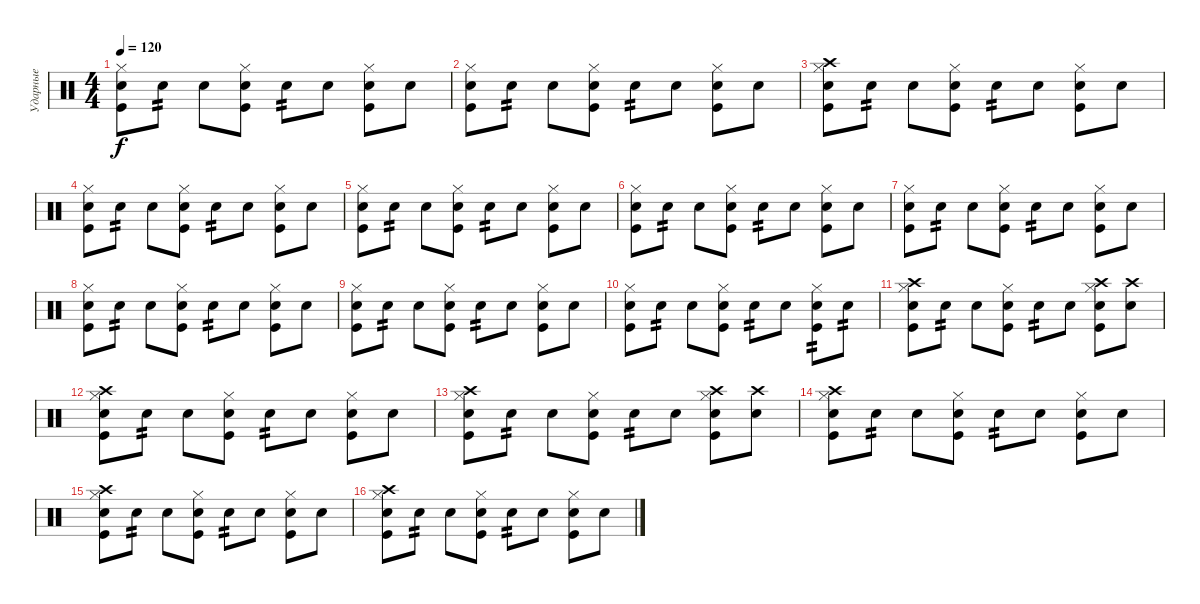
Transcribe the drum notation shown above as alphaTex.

\track ("Ударные" "Ударные") {instrument percussion}
\staff {score}
\articulation defaults
\ts (4 4)
\tempo 120
\clef neutral
\ks c
("Hi-Hat (closed)" "Electric Snare (hit)" "Kick (hit)").8{dy f} "Electric Snare (hit)".8{tp 2} "Electric Snare (hit)".8 ("Hi-Hat (closed)" "Electric Snare (hit)" "Kick (hit)").8 "Electric Snare (hit)".8{tp 2} "Electric Snare (hit)".8 ("Hi-Hat (closed)" "Electric Snare (hit)" "Kick (hit)").8 "Electric Snare (hit)".8 |
("Hi-Hat (closed)" "Electric Snare (hit)" "Kick (hit)").8 "Electric Snare (hit)".8{tp 2} "Electric Snare (hit)".8 ("Hi-Hat (closed)" "Electric Snare (hit)" "Kick (hit)").8 "Electric Snare (hit)".8{tp 2} "Electric Snare (hit)".8 ("Hi-Hat (closed)" "Electric Snare (hit)" "Kick (hit)").8 "Electric Snare (hit)".8 |
("Hi-Hat (closed)" "Crash high (hit)" "Electric Snare (hit)" "Kick (hit)").8 "Electric Snare (hit)".8{tp 2} "Electric Snare (hit)".8 ("Hi-Hat (closed)" "Electric Snare (hit)" "Kick (hit)").8 "Electric Snare (hit)".8{tp 2} "Electric Snare (hit)".8 ("Hi-Hat (closed)" "Electric Snare (hit)" "Kick (hit)").8 "Electric Snare (hit)".8 |
("Hi-Hat (closed)" "Electric Snare (hit)" "Kick (hit)").8 "Electric Snare (hit)".8{tp 2} "Electric Snare (hit)".8 ("Hi-Hat (closed)" "Electric Snare (hit)" "Kick (hit)").8 "Electric Snare (hit)".8{tp 2} "Electric Snare (hit)".8 ("Hi-Hat (closed)" "Electric Snare (hit)" "Kick (hit)").8 "Electric Snare (hit)".8 |
("Hi-Hat (closed)" "Electric Snare (hit)" "Kick (hit)").8 "Electric Snare (hit)".8{tp 2} "Electric Snare (hit)".8 ("Hi-Hat (closed)" "Electric Snare (hit)" "Kick (hit)").8 "Electric Snare (hit)".8{tp 2} "Electric Snare (hit)".8 ("Hi-Hat (closed)" "Electric Snare (hit)" "Kick (hit)").8 "Electric Snare (hit)".8 |
("Hi-Hat (closed)" "Electric Snare (hit)" "Kick (hit)").8 "Electric Snare (hit)".8{tp 2} "Electric Snare (hit)".8 ("Hi-Hat (closed)" "Electric Snare (hit)" "Kick (hit)").8 "Electric Snare (hit)".8{tp 2} "Electric Snare (hit)".8 ("Hi-Hat (closed)" "Electric Snare (hit)" "Kick (hit)").8 "Electric Snare (hit)".8 |
("Hi-Hat (closed)" "Electric Snare (hit)" "Kick (hit)").8 "Electric Snare (hit)".8{tp 2} "Electric Snare (hit)".8 ("Hi-Hat (closed)" "Electric Snare (hit)" "Kick (hit)").8 "Electric Snare (hit)".8{tp 2} "Electric Snare (hit)".8 ("Hi-Hat (closed)" "Electric Snare (hit)" "Kick (hit)").8 "Electric Snare (hit)".8 |
("Hi-Hat (closed)" "Electric Snare (hit)" "Kick (hit)").8 "Electric Snare (hit)".8{tp 2} "Electric Snare (hit)".8 ("Hi-Hat (closed)" "Electric Snare (hit)" "Kick (hit)").8 "Electric Snare (hit)".8{tp 2} "Electric Snare (hit)".8 ("Hi-Hat (closed)" "Electric Snare (hit)" "Kick (hit)").8 "Electric Snare (hit)".8 |
("Hi-Hat (closed)" "Electric Snare (hit)" "Kick (hit)").8 "Electric Snare (hit)".8{tp 2} "Electric Snare (hit)".8 ("Hi-Hat (closed)" "Electric Snare (hit)" "Kick (hit)").8 "Electric Snare (hit)".8{tp 2} "Electric Snare (hit)".8 ("Hi-Hat (closed)" "Electric Snare (hit)" "Kick (hit)").8 "Electric Snare (hit)".8 |
("Hi-Hat (closed)" "Electric Snare (hit)" "Kick (hit)").8 "Electric Snare (hit)".8{tp 2} "Electric Snare (hit)".8 ("Hi-Hat (closed)" "Electric Snare (hit)" "Kick (hit)").8 "Electric Snare (hit)".8{tp 2} "Electric Snare (hit)".8 ("Hi-Hat (closed)" "Electric Snare (hit)" "Kick (hit)").8{tp 2} "Electric Snare (hit)".8{tp 2} |
("Hi-Hat (closed)" "Crash high (hit)" "Electric Snare (hit)" "Kick (hit)").8 "Electric Snare (hit)".8{tp 2} "Electric Snare (hit)".8 ("Hi-Hat (closed)" "Electric Snare (hit)" "Kick (hit)").8 "Electric Snare (hit)".8{tp 2} "Electric Snare (hit)".8 ("Hi-Hat (closed)" "Crash high (hit)" "Electric Snare (hit)" "Kick (hit)").8 ("Crash high (hit)" "Electric Snare (hit)").8 |
("Hi-Hat (closed)" "Crash high (hit)" "Electric Snare (hit)" "Kick (hit)").8 "Electric Snare (hit)".8{tp 2} "Electric Snare (hit)".8 ("Hi-Hat (closed)" "Electric Snare (hit)" "Kick (hit)").8 "Electric Snare (hit)".8{tp 2} "Electric Snare (hit)".8 ("Hi-Hat (closed)" "Electric Snare (hit)" "Kick (hit)").8 "Electric Snare (hit)".8 |
("Hi-Hat (closed)" "Crash high (hit)" "Electric Snare (hit)" "Kick (hit)").8 "Electric Snare (hit)".8{tp 2} "Electric Snare (hit)".8 ("Hi-Hat (closed)" "Electric Snare (hit)" "Kick (hit)").8 "Electric Snare (hit)".8{tp 2} "Electric Snare (hit)".8 ("Hi-Hat (closed)" "Crash high (hit)" "Electric Snare (hit)" "Kick (hit)").8 ("Crash high (hit)" "Electric Snare (hit)").8 |
("Hi-Hat (closed)" "Crash high (hit)" "Electric Snare (hit)" "Kick (hit)").8 "Electric Snare (hit)".8{tp 2} "Electric Snare (hit)".8 ("Hi-Hat (closed)" "Electric Snare (hit)" "Kick (hit)").8 "Electric Snare (hit)".8{tp 2} "Electric Snare (hit)".8 ("Hi-Hat (closed)" "Electric Snare (hit)" "Kick (hit)").8 "Electric Snare (hit)".8 |
("Hi-Hat (closed)" "Crash high (hit)" "Electric Snare (hit)" "Kick (hit)").8 "Electric Snare (hit)".8{tp 2} "Electric Snare (hit)".8 ("Hi-Hat (closed)" "Electric Snare (hit)" "Kick (hit)").8 "Electric Snare (hit)".8{tp 2} "Electric Snare (hit)".8 ("Hi-Hat (closed)" "Electric Snare (hit)" "Kick (hit)").8 "Electric Snare (hit)".8 |
("Hi-Hat (closed)" "Crash high (hit)" "Electric Snare (hit)" "Kick (hit)").8 "Electric Snare (hit)".8{tp 2} "Electric Snare (hit)".8 ("Hi-Hat (closed)" "Electric Snare (hit)" "Kick (hit)").8 "Electric Snare (hit)".8{tp 2} "Electric Snare (hit)".8 ("Hi-Hat (closed)" "Electric Snare (hit)" "Kick (hit)").8 "Electric Snare (hit)".8
